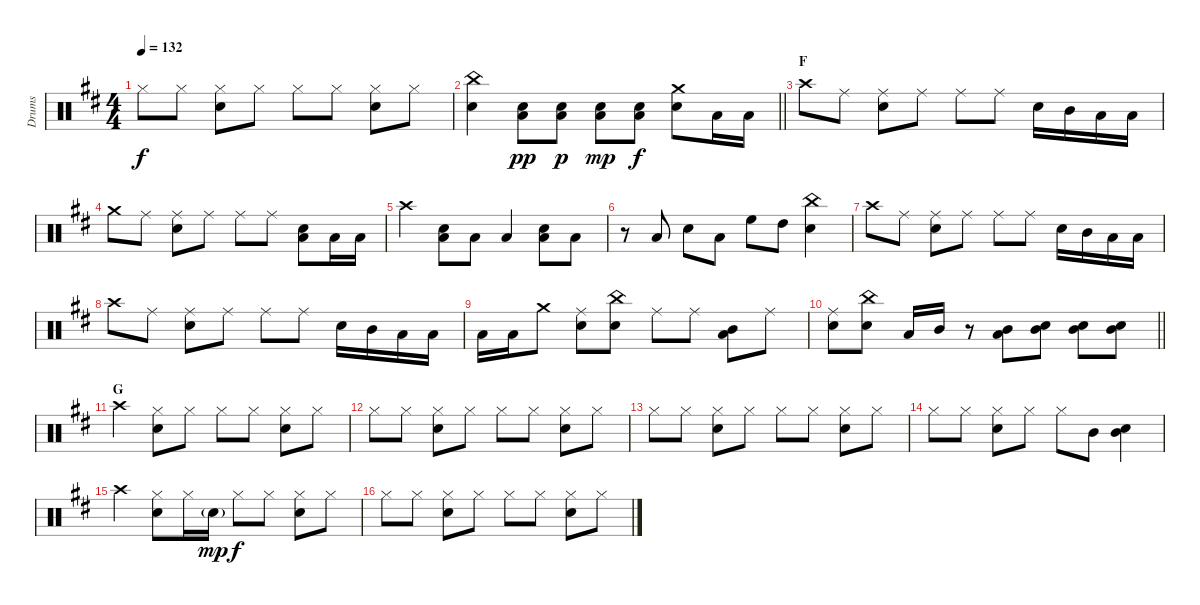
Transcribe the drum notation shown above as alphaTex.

\track ("Drums" "Drums") {instrument percussion}
\staff {score}
\articulation defaults
\ts (4 4)
\tempo 132
\clef neutral
\ks d "Hi-Hat (closed)".8{dy f} "Hi-Hat (closed)".8
("Hi-Hat (closed)" "Snare (hit) 2").8 "Hi-Hat (closed)".8 "Hi-Hat (closed)".8 "Hi-Hat (closed)".8 ("Hi-Hat (closed)" "Snare (hit) 2").8 "Hi-Hat (closed)".8 |
\barLineRight lightlight
("China (hit)" "Snare (hit) 2").4 ("Snare (hit) 2" "Low Tom (hit)").8{dy pp} ("Snare (hit) 2" "Low Tom (hit)").8{dy p} ("Snare (hit) 2" "Low Tom (hit)").8{dy mp} ("Snare (hit) 2" "Low Tom (hit)").8{dy f} ("Crash medium (hit)" "Snare (hit) 2").8 "Low Tom (hit)".16 "Low Tom (hit)".16 |
\section ("" "F")
"Crash high (hit)".8 "Ride (middle)".8 ("Ride (middle)" "Snare (hit) 2").8 "Ride (middle)".8 "Ride (middle)".8 "Ride (middle)".8 "Snare (hit) 2".16 "Mid Tom (hit)".16 "Low Tom (hit)".16 "Low Tom (hit)".16 |
"Crash medium (hit)".8 "Ride (middle)".8 ("Ride (middle)" "Snare (hit) 2").8 "Ride (middle)".8 "Ride (middle)".8 "Ride (middle)".8 ("Snare (hit) 2" "Low Tom (hit)").8 "Low Tom (hit)".16 "Low Tom (hit)".16 |
"Crash high (hit)".4 ("Snare (hit) 2" "Low Tom (hit)").8 "Low Tom (hit)".8 "Low Tom (hit)".4 ("Low Tom (hit)" "Snare (hit) 2").8 "Low Tom (hit)".8 |
r.8 "Low Tom (hit)".8 "Snare (hit) 2".8 "Low Tom (hit)".8 "High Floor Tom (hit)".8 "High Tom (hit)".8 ("China (hit)" "Snare (hit) 2").4 |
"Crash high (hit)".8 "Ride (middle)".8 ("Ride (middle)" "Snare (hit) 2").8 "Ride (middle)".8 "Ride (middle)".8 "Ride (middle)".8 "Snare (hit) 2".16 "Mid Tom (hit)".16 "Low Tom (hit)".16 "Low Tom (hit)".16 |
"Crash high (hit)".8 "Ride (middle)".8 ("Ride (middle)" "Snare (hit) 2").8 "Ride (middle)".8 "Ride (middle)".8 "Ride (middle)".8 "Snare (hit) 2".16 "Mid Tom (hit)".16 "Low Tom (hit)".16 "Low Tom (hit)".16 |
"Low Tom (hit)".16 "Low Tom (hit)".16 "Crash medium (hit)".8 ("Ride (middle)" "Snare (hit) 2").8 ("China (hit)" "Snare (hit) 2").8 "Ride (middle)".8 "Ride (middle)".8 ("Mid Tom (hit)" "Low Tom (hit)").8 "Ride (middle)".8 |
\barLineRight lightlight
("Ride (middle)" "Snare (hit) 2").8 ("China (hit)" "Snare (hit) 2").8 "Low Tom (hit)".16 "Mid Tom (hit)".16 r.8 ("Mid Tom (hit)" "Low Tom (hit)").8 ("Mid Tom (hit)" "Snare (hit) 2").8 ("Mid Tom (hit)" "Snare (hit) 2").8 ("Mid Tom (hit)" "Snare (hit) 2").8 |
\section ("" "G")
"Crash high (hit)".4 ("Hi-Hat (closed)" "Snare (hit) 2").8 "Hi-Hat (closed)".8 "Hi-Hat (closed)".8 "Hi-Hat (closed)".8 ("Hi-Hat (closed)" "Snare (hit) 2").8 "Hi-Hat (closed)".8 |
"Hi-Hat (closed)".8 "Hi-Hat (closed)".8 ("Hi-Hat (closed)" "Snare (hit) 2").8 "Hi-Hat (closed)".8 "Hi-Hat (closed)".8 "Hi-Hat (closed)".8 ("Hi-Hat (closed)" "Snare (hit) 2").8 "Hi-Hat (closed)".8 |
"Hi-Hat (closed)".8 "Hi-Hat (closed)".8 ("Hi-Hat (closed)" "Snare (hit) 2").8 "Hi-Hat (closed)".8 "Hi-Hat (closed)".8 "Hi-Hat (closed)".8 ("Hi-Hat (closed)" "Snare (hit) 2").8 "Hi-Hat (closed)".8 |
"Hi-Hat (closed)".8 "Hi-Hat (closed)".8 ("Hi-Hat (closed)" "Snare (hit) 2").8 "Hi-Hat (closed)".8 "Hi-Hat (closed)".8 "Mid Tom (hit)".8 ("Mid Tom (hit)" "Snare (hit) 2").4 |
"Crash high (hit)".4 ("Hi-Hat (closed)" "Snare (hit) 2").8 "Hi-Hat (closed)".16 "Snare (hit) 2"{g}.16{dy mp} "Hi-Hat (closed)".8{dy f} "Hi-Hat (closed)".8 ("Hi-Hat (closed)" "Snare (hit) 2").8 "Hi-Hat (closed)".8 |
"Hi-Hat (closed)".8 "Hi-Hat (closed)".8 ("Hi-Hat (closed)" "Snare (hit) 2").8 "Hi-Hat (closed)".8 "Hi-Hat (closed)".8 "Hi-Hat (closed)".8 ("Hi-Hat (closed)" "Snare (hit) 2").8 "Hi-Hat (closed)".8
